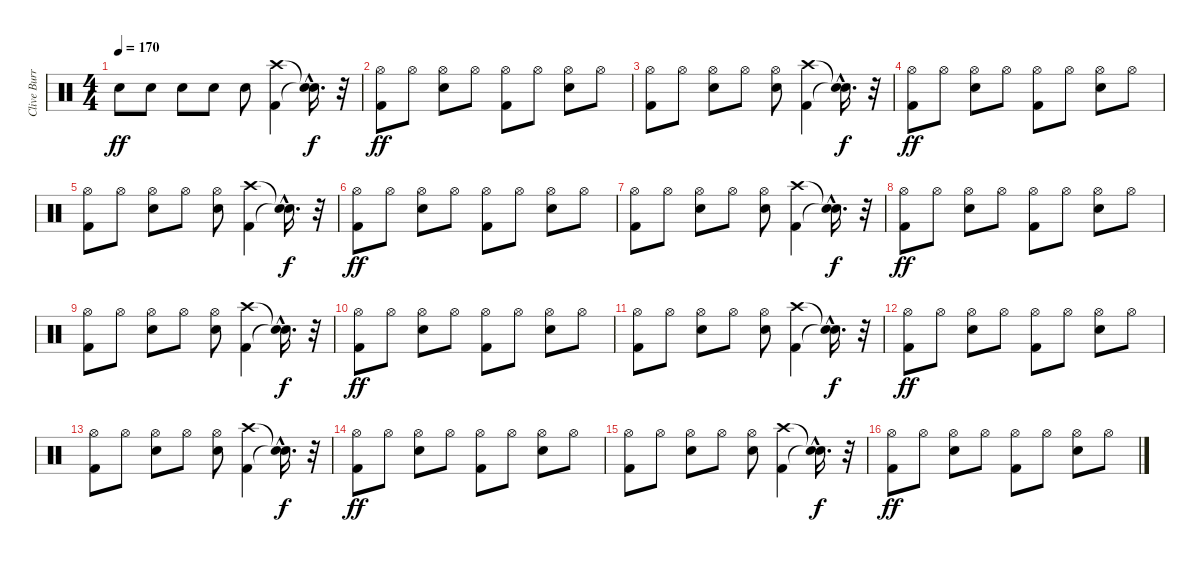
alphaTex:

\track ("Clive Burr" "Clive Burr") {instrument percussion}
\staff {score}
\articulation defaults
\ts (4 4)
\tempo 170
\clef neutral
\ks c "Snare (hit) 2".8{dy ff} "Snare (hit) 2".8 "Snare (hit) 2".8 "Snare (hit) 2".8 "Snare (hit) 2".8
("Kick (hit) 2" "Crash high (hit)").4 ("Snare (hit)"{hac t} "Snare (hit)"{hac t}).16{d dy f} r.32 |
("Kick (hit) 2" "Hi-Hat (open)").8{dy ff} "Hi-Hat (open)".8 ("Snare (hit) 2" "Hi-Hat (open)").8 "Hi-Hat (open)".8 ("Kick (hit) 2" "Hi-Hat (open)").8 "Hi-Hat (open)".8 ("Snare (hit) 2" "Hi-Hat (open)").8 "Hi-Hat (open)".8 |
("Kick (hit) 2" "Hi-Hat (open)").8 "Hi-Hat (open)".8 ("Snare (hit) 2" "Hi-Hat (open)").8 "Hi-Hat (open)".8 ("Snare (hit) 2" "Hi-Hat (open)").8 ("Kick (hit) 2" "Crash high (hit)").4 ("Snare (hit)"{hac t} "Snare (hit)"{hac t}).16{d dy f} r.32 |
("Kick (hit) 2" "Hi-Hat (open)").8{dy ff} "Hi-Hat (open)".8 ("Snare (hit) 2" "Hi-Hat (open)").8 "Hi-Hat (open)".8 ("Kick (hit) 2" "Hi-Hat (open)").8 "Hi-Hat (open)".8 ("Snare (hit) 2" "Hi-Hat (open)").8 "Hi-Hat (open)".8 |
("Kick (hit) 2" "Hi-Hat (open)").8 "Hi-Hat (open)".8 ("Snare (hit) 2" "Hi-Hat (open)").8 "Hi-Hat (open)".8 ("Snare (hit) 2" "Hi-Hat (open)").8 ("Kick (hit) 2" "Crash high (hit)").4 ("Snare (hit)"{hac t} "Snare (hit)"{hac t}).16{d dy f} r.32 |
("Kick (hit) 2" "Hi-Hat (open)").8{dy ff} "Hi-Hat (open)".8 ("Snare (hit) 2" "Hi-Hat (open)").8 "Hi-Hat (open)".8 ("Kick (hit) 2" "Hi-Hat (open)").8 "Hi-Hat (open)".8 ("Snare (hit) 2" "Hi-Hat (open)").8 "Hi-Hat (open)".8 |
("Kick (hit) 2" "Hi-Hat (open)").8 "Hi-Hat (open)".8 ("Snare (hit) 2" "Hi-Hat (open)").8 "Hi-Hat (open)".8 ("Snare (hit) 2" "Hi-Hat (open)").8 ("Kick (hit) 2" "Crash high (hit)").4 ("Snare (hit)"{hac t} "Snare (hit)"{hac t}).16{d dy f} r.32 |
("Kick (hit) 2" "Hi-Hat (open)").8{dy ff} "Hi-Hat (open)".8 ("Snare (hit) 2" "Hi-Hat (open)").8 "Hi-Hat (open)".8 ("Kick (hit) 2" "Hi-Hat (open)").8 "Hi-Hat (open)".8 ("Snare (hit) 2" "Hi-Hat (open)").8 "Hi-Hat (open)".8 |
("Kick (hit) 2" "Hi-Hat (open)").8 "Hi-Hat (open)".8 ("Snare (hit) 2" "Hi-Hat (open)").8 "Hi-Hat (open)".8 ("Snare (hit) 2" "Hi-Hat (open)").8 ("Kick (hit) 2" "Crash high (hit)").4 ("Snare (hit)"{hac t} "Snare (hit)"{hac t}).16{d dy f} r.32 |
("Kick (hit) 2" "Hi-Hat (open)").8{dy ff} "Hi-Hat (open)".8 ("Snare (hit) 2" "Hi-Hat (open)").8 "Hi-Hat (open)".8 ("Kick (hit) 2" "Hi-Hat (open)").8 "Hi-Hat (open)".8 ("Snare (hit) 2" "Hi-Hat (open)").8 "Hi-Hat (open)".8 |
("Kick (hit) 2" "Hi-Hat (open)").8 "Hi-Hat (open)".8 ("Snare (hit) 2" "Hi-Hat (open)").8 "Hi-Hat (open)".8 ("Snare (hit) 2" "Hi-Hat (open)").8 ("Kick (hit) 2" "Crash high (hit)").4 ("Snare (hit)"{hac t} "Snare (hit)"{hac t}).16{d dy f} r.32 |
("Kick (hit) 2" "Hi-Hat (open)").8{dy ff} "Hi-Hat (open)".8 ("Snare (hit) 2" "Hi-Hat (open)").8 "Hi-Hat (open)".8 ("Kick (hit) 2" "Hi-Hat (open)").8 "Hi-Hat (open)".8 ("Snare (hit) 2" "Hi-Hat (open)").8 "Hi-Hat (open)".8 |
("Kick (hit) 2" "Hi-Hat (open)").8 "Hi-Hat (open)".8 ("Snare (hit) 2" "Hi-Hat (open)").8 "Hi-Hat (open)".8 ("Snare (hit) 2" "Hi-Hat (open)").8 ("Kick (hit) 2" "Crash high (hit)").4 ("Snare (hit)"{hac t} "Snare (hit)"{hac t}).16{d dy f} r.32 |
("Kick (hit) 2" "Hi-Hat (open)").8{dy ff} "Hi-Hat (open)".8 ("Snare (hit) 2" "Hi-Hat (open)").8 "Hi-Hat (open)".8 ("Kick (hit) 2" "Hi-Hat (open)").8 "Hi-Hat (open)".8 ("Snare (hit) 2" "Hi-Hat (open)").8 "Hi-Hat (open)".8 |
("Kick (hit) 2" "Hi-Hat (open)").8 "Hi-Hat (open)".8 ("Snare (hit) 2" "Hi-Hat (open)").8 "Hi-Hat (open)".8 ("Snare (hit) 2" "Hi-Hat (open)").8 ("Kick (hit) 2" "Crash high (hit)").4 ("Snare (hit)"{hac t} "Snare (hit)"{hac t}).16{d dy f} r.32 |
("Kick (hit) 2" "Hi-Hat (open)").8{dy ff} "Hi-Hat (open)".8 ("Snare (hit) 2" "Hi-Hat (open)").8 "Hi-Hat (open)".8 ("Kick (hit) 2" "Hi-Hat (open)").8 "Hi-Hat (open)".8 ("Snare (hit) 2" "Hi-Hat (open)").8 "Hi-Hat (open)".8
